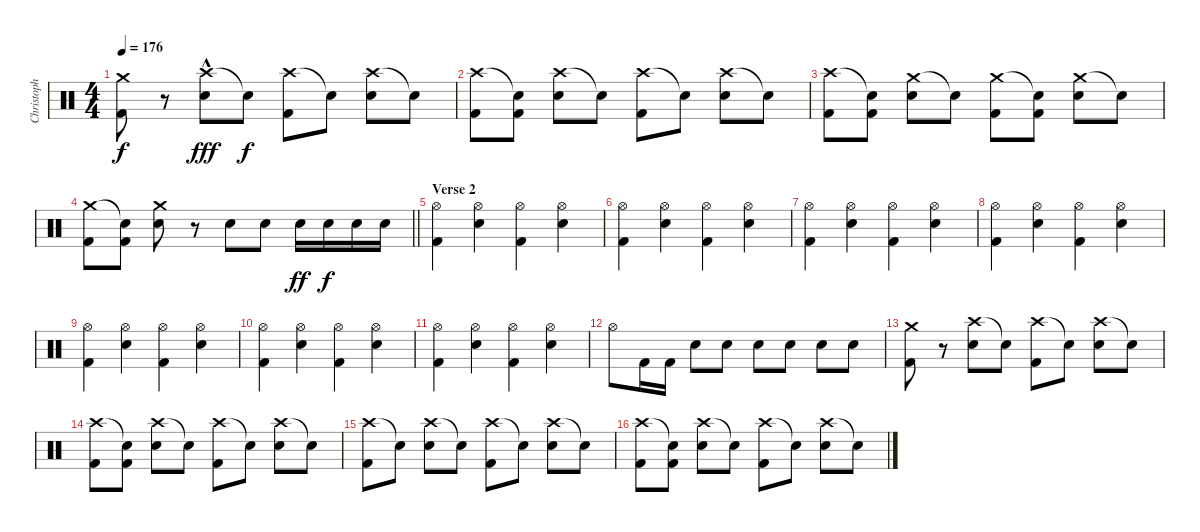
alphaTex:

\track ("Christoph" "Christoph") {instrument percussion}
\staff {score}
\articulation defaults
\ts (4 4)
\tempo 176
\clef neutral
\ks c
("Crash medium (hit)" "Kick (hit) 2").8{dy f} r.8 ("Crash high (hit)"{hac} "Snare (hit) 2").8{dy fff} "Snare (hit)"{t}.8{dy f} ("Crash high (hit)" "Kick (hit) 2").8 "Snare (hit)"{t}.8 ("Crash high (hit)" "Snare (hit) 2").8 "Snare (hit)"{t}.8 |
("Crash high (hit)" "Kick (hit) 2").8 ("Snare (hit)"{t} "Kick (hit) 2").8 ("Crash high (hit)" "Snare (hit) 2").8 "Snare (hit)"{t}.8 ("Crash high (hit)" "Kick (hit) 2").8 "Snare (hit)"{t}.8 ("Crash high (hit)" "Snare (hit) 2").8 "Snare (hit)"{t}.8 |
("Crash high (hit)" "Kick (hit) 2").8 ("Snare (hit)"{t} "Kick (hit) 2").8 ("Crash medium (hit)" "Snare (hit) 2").8 "Snare (hit)"{t}.8 ("Crash medium (hit)" "Kick (hit) 2").8 ("Snare (hit)"{t} "Kick (hit) 2").8 ("Crash medium (hit)" "Snare (hit) 2").8 "Snare (hit)"{t}.8 |
\barLineRight lightlight
("Crash medium (hit)" "Kick (hit) 2").8 ("Snare (hit)"{t} "Kick (hit) 2").8 ("Crash medium (hit)" "Snare (hit) 2").8 r.8 "Snare (hit) 2".8 "Snare (hit) 2".8 "Snare (hit) 2".16{dy ff} "Snare (hit) 2".16{dy f} "Snare (hit) 2".16 "Snare (hit) 2".16 |
\section ("" "Verse 2")
("Hi-Hat (open)" "Kick (hit) 2").4 ("Hi-Hat (open)" "Snare (hit) 2").4 ("Hi-Hat (open)" "Kick (hit) 2").4 ("Hi-Hat (open)" "Snare (hit) 2").4 |
("Hi-Hat (open)" "Kick (hit) 2").4 ("Hi-Hat (open)" "Snare (hit) 2").4 ("Hi-Hat (open)" "Kick (hit) 2").4 ("Hi-Hat (open)" "Snare (hit) 2").4 |
("Hi-Hat (open)" "Kick (hit) 2").4 ("Hi-Hat (open)" "Snare (hit) 2").4 ("Hi-Hat (open)" "Kick (hit) 2").4 ("Hi-Hat (open)" "Snare (hit) 2").4 |
("Hi-Hat (open)" "Kick (hit) 2").4 ("Hi-Hat (open)" "Snare (hit) 2").4 ("Hi-Hat (open)" "Kick (hit) 2").4 ("Hi-Hat (open)" "Snare (hit) 2").4 |
("Hi-Hat (open)" "Kick (hit) 2").4 ("Hi-Hat (open)" "Snare (hit) 2").4 ("Hi-Hat (open)" "Kick (hit) 2").4 ("Hi-Hat (open)" "Snare (hit) 2").4 |
("Hi-Hat (open)" "Kick (hit) 2").4 ("Hi-Hat (open)" "Snare (hit) 2").4 ("Hi-Hat (open)" "Kick (hit) 2").4 ("Hi-Hat (open)" "Snare (hit) 2").4 |
("Hi-Hat (open)" "Kick (hit) 2").4 ("Hi-Hat (open)" "Snare (hit) 2").4 ("Hi-Hat (open)" "Kick (hit) 2").4 ("Hi-Hat (open)" "Snare (hit) 2").4 |
"Hi-Hat (open)".8 "Kick (hit) 2".16 "Kick (hit) 2".16 "Snare (hit) 2".8 "Snare (hit) 2".8 "Snare (hit) 2".8 "Snare (hit) 2".8 "Snare (hit) 2".8 "Snare (hit) 2".8 |
("Crash medium (hit)" "Kick (hit) 2").8 r.8 ("Crash high (hit)" "Snare (hit) 2").8 "Snare (hit)"{t}.8 ("Crash high (hit)" "Kick (hit) 2").8 "Snare (hit)"{t}.8 ("Crash high (hit)" "Snare (hit) 2").8 "Snare (hit)"{t}.8 |
("Crash high (hit)" "Kick (hit) 2").8 ("Snare (hit)"{t} "Kick (hit) 2").8 ("Crash high (hit)" "Snare (hit) 2").8 "Snare (hit)"{t}.8 ("Crash high (hit)" "Kick (hit) 2").8 "Snare (hit)"{t}.8 ("Crash high (hit)" "Snare (hit) 2").8 "Snare (hit)"{t}.8 |
("Crash high (hit)" "Kick (hit) 2").8 "Snare (hit)"{t}.8 ("Crash high (hit)" "Snare (hit) 2").8 "Snare (hit)"{t}.8 ("Crash high (hit)" "Kick (hit) 2").8 "Snare (hit)"{t}.8 ("Crash high (hit)" "Snare (hit) 2").8 "Snare (hit)"{t}.8 |
("Crash high (hit)" "Kick (hit) 2").8 ("Snare (hit)"{t} "Kick (hit) 2").8 ("Crash high (hit)" "Snare (hit) 2").8 "Snare (hit)"{t}.8 ("Crash high (hit)" "Kick (hit) 2").8 "Snare (hit)"{t}.8 ("Crash high (hit)" "Snare (hit) 2").8 "Snare (hit)"{t}.8
